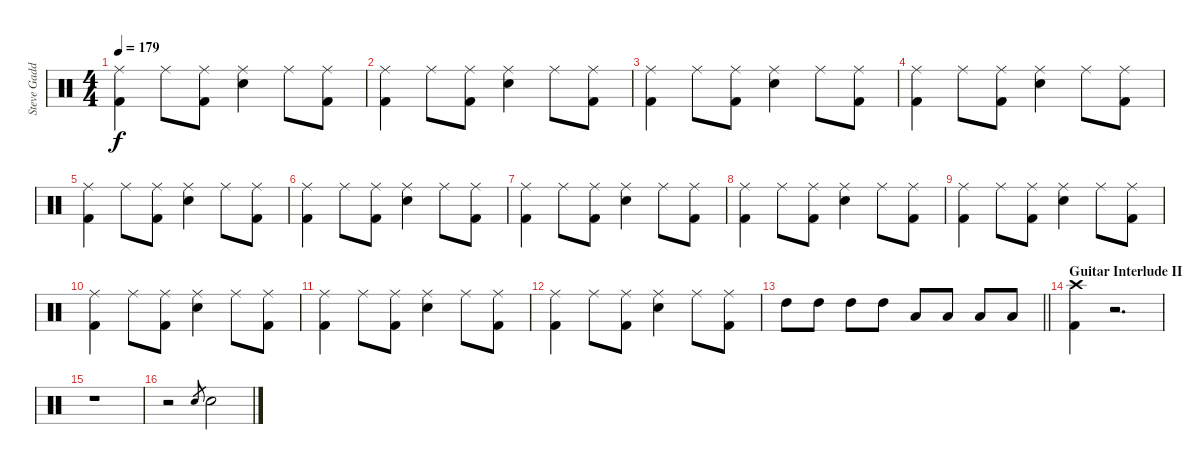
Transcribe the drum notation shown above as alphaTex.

\track ("Steve Gadd" "Steve Gadd") {instrument percussion}
\staff {score}
\articulation defaults
\ts (4 4)
\tempo 179
\clef neutral
\ks c
("Ride (middle)" "Kick (hit) 2").4{dy f} "Ride (middle)".8 ("Ride (middle)" "Kick (hit) 2").8 ("Ride (middle)" "Electric Snare (hit)").4 "Ride (middle)".8 ("Ride (middle)" "Kick (hit) 2").8 |
("Ride (middle)" "Kick (hit) 2").4 "Ride (middle)".8 ("Ride (middle)" "Kick (hit) 2").8 ("Ride (middle)" "Electric Snare (hit)").4 "Ride (middle)".8 ("Ride (middle)" "Kick (hit) 2").8 |
("Ride (middle)" "Kick (hit) 2").4 "Ride (middle)".8 ("Ride (middle)" "Kick (hit) 2").8 ("Ride (middle)" "Electric Snare (hit)").4 "Ride (middle)".8 ("Ride (middle)" "Kick (hit) 2").8 |
("Ride (middle)" "Kick (hit) 2").4 "Ride (middle)".8 ("Ride (middle)" "Kick (hit) 2").8 ("Ride (middle)" "Electric Snare (hit)").4 "Ride (middle)".8 ("Ride (middle)" "Kick (hit) 2").8 |
("Ride (middle)" "Kick (hit) 2").4 "Ride (middle)".8 ("Ride (middle)" "Kick (hit) 2").8 ("Ride (middle)" "Electric Snare (hit)").4 "Ride (middle)".8 ("Ride (middle)" "Kick (hit) 2").8 |
("Ride (middle)" "Kick (hit) 2").4 "Ride (middle)".8 ("Ride (middle)" "Kick (hit) 2").8 ("Ride (middle)" "Electric Snare (hit)").4 "Ride (middle)".8 ("Ride (middle)" "Kick (hit) 2").8 |
("Ride (middle)" "Kick (hit) 2").4 "Ride (middle)".8 ("Ride (middle)" "Kick (hit) 2").8 ("Ride (middle)" "Electric Snare (hit)").4 "Ride (middle)".8 ("Ride (middle)" "Kick (hit) 2").8 |
("Ride (middle)" "Kick (hit) 2").4 "Ride (middle)".8 ("Ride (middle)" "Kick (hit) 2").8 ("Ride (middle)" "Electric Snare (hit)").4 "Ride (middle)".8 ("Ride (middle)" "Kick (hit) 2").8 |
("Ride (middle)" "Kick (hit) 2").4 "Ride (middle)".8 ("Ride (middle)" "Kick (hit) 2").8 ("Ride (middle)" "Electric Snare (hit)").4 "Ride (middle)".8 ("Ride (middle)" "Kick (hit) 2").8 |
("Ride (middle)" "Kick (hit) 2").4 "Ride (middle)".8 ("Ride (middle)" "Kick (hit) 2").8 ("Ride (middle)" "Electric Snare (hit)").4 "Ride (middle)".8 ("Ride (middle)" "Kick (hit) 2").8 |
("Ride (middle)" "Kick (hit) 2").4 "Ride (middle)".8 ("Ride (middle)" "Kick (hit) 2").8 ("Ride (middle)" "Electric Snare (hit)").4 "Ride (middle)".8 ("Ride (middle)" "Kick (hit) 2").8 |
("Ride (middle)" "Kick (hit) 2").4 "Ride (middle)".8 ("Ride (middle)" "Kick (hit) 2").8 ("Ride (middle)" "Electric Snare (hit)").4 "Ride (middle)".8 ("Ride (middle)" "Kick (hit) 2").8 |
\barLineRight lightlight "High Tom (hit)".8 "High Tom (hit)".8 "High Tom (hit)".8 "High Tom (hit)".8 "Low Tom (hit)".8 "Low Tom (hit)".8 "Low Floor Tom (hit)".8 "Low Floor Tom (hit)".8
|
\section ("" "Guitar Interlude II")
("Crash high (hit)" "Kick (hit) 2").4 r.2{d} |
r.1 |
r.2 "Electric Snare (hit)".8{gr} "Electric Snare (hit)".2
